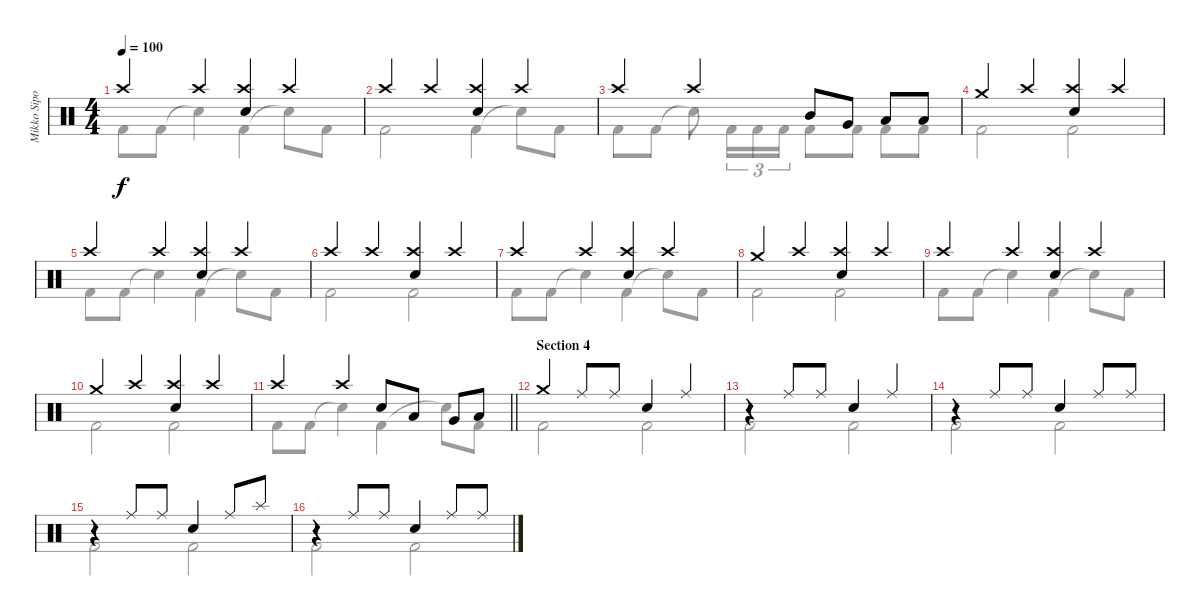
\track ("Mikko Sipola (drums)" "Mikko Sipo") {instrument percussion}
\staff {score}
\articulation defaults
\voice
\ts (4 4)
\tempo 100
\clef neutral
\ks aminor "Crash high (hit)".4{dy f} "Crash high (hit)".4
("Crash high (hit)" "Snare (hit) 2").4 "Crash high (hit)".4 |
"Crash high (hit)".4 "Crash high (hit)".4 ("Crash high (hit)" "Snare (hit) 2").4 "Crash high (hit)".4 |
"Crash high (hit)".4 "Crash high (hit)".4 "Mid Tom (hit)".8 "Very Low Tom (hit)".8 "Low Tom (hit)".8 "Low Floor Tom (hit)".8 |
"Crash medium (hit)".4 "Crash high (hit)".4 ("Crash high (hit)" "Snare (hit) 2").4 "Crash high (hit)".4 |
"Crash high (hit)".4 "Crash high (hit)".4 ("Crash high (hit)" "Snare (hit) 2").4 "Crash high (hit)".4 |
"Crash high (hit)".4 "Crash high (hit)".4 ("Crash high (hit)" "Snare (hit) 2").4 "Crash high (hit)".4 |
"Crash high (hit)".4 "Crash high (hit)".4 ("Crash high (hit)" "Snare (hit) 2").4 "Crash high (hit)".4 |
"Crash medium (hit)".4 "Crash high (hit)".4 ("Crash high (hit)" "Snare (hit) 2").4 "Crash high (hit)".4 |
"Crash high (hit)".4 "Crash high (hit)".4 ("Crash high (hit)" "Snare (hit) 2").4 "Crash high (hit)".4 |
"Crash medium (hit)".4 "Crash high (hit)".4 ("Crash high (hit)" "Snare (hit) 2").4 "Crash high (hit)".4 |
\barLineRight lightlight "Crash high (hit)".4 "Crash high (hit)".4 "Snare (hit) 2".8 "Low Tom (hit)".8 "Very Low Tom (hit)".8 "Low Floor Tom (hit)".8
|
\section ("" "Section 4")
"Crash medium (hit)".4 "Ride (middle)".8 "Ride (middle)".8 "Snare (hit) 2".4 "Ride (middle)".4 |
r.4 "Ride (middle)".8 "Ride (middle)".8 "Snare (hit) 2".4 "Ride (middle)".4 |
r.4 "Ride (middle)".8 "Ride (middle)".8 "Snare (hit) 2".4 "Ride (middle)".8 "Ride (middle)".8 |
r.4 "Ride (middle)".8 "Ride (middle)".8 "Snare (hit) 2".4 "Ride (middle)".8 "Splash (hit)".8 |
r.4 "Ride (middle)".8 "Ride (middle)".8 "Snare (hit) 2".4 "Ride (middle)".8 "Ride (middle)".8
\voice
\clef neutral
\ottava regular
\simile none
\ks aminor "Kick (hit) 2".8{dy f} "Kick (hit) 2".8 "Snare (hit)"{t}.4 "Kick (hit) 2".4 "Snare (hit)"{t}.8 "Kick (hit) 2".8
|
"Kick (hit) 2".2 "Kick (hit) 2".4 "Snare (hit)"{t}.8 "Kick (hit) 2".8 |
"Kick (hit) 2".8 "Kick (hit) 2".8 "Snare (hit)"{t}.8 "Kick (hit) 2".16{tu (3 2)} "Kick (hit) 2".16{tu (3 2)} "Kick (hit) 2".16{tu (3 2)} "Kick (hit) 2".8 "Kick (hit) 2".8 "Kick (hit) 2".8 "Kick (hit) 2".8 |
"Kick (hit) 2".2 "Kick (hit) 2".2 |
"Kick (hit) 2".8 "Kick (hit) 2".8 "Snare (hit)"{t}.4 "Kick (hit) 2".4 "Snare (hit)"{t}.8 "Kick (hit) 2".8 |
"Kick (hit) 2".2 "Kick (hit) 2".2 |
"Kick (hit) 2".8 "Kick (hit) 2".8 "Snare (hit)"{t}.4 "Kick (hit) 2".4 "Snare (hit)"{t}.8 "Kick (hit) 2".8 |
"Kick (hit) 2".2 "Kick (hit) 2".2 |
"Kick (hit) 2".8 "Kick (hit) 2".8 "Snare (hit)"{t}.4 "Kick (hit) 2".4 "Snare (hit)"{t}.8 "Kick (hit) 2".8 |
"Kick (hit) 2".2 "Kick (hit) 2".2 |
\barLineRight lightlight "Kick (hit) 2".8 "Kick (hit) 2".8 "Snare (hit)"{t}.4 "Kick (hit) 2".4 "Snare (hit)"{t}.8 "Kick (hit) 2".8
|
"Kick (hit) 2".2 "Kick (hit) 2".2 |
"Kick (hit) 2".2 "Kick (hit) 2".2 |
"Kick (hit) 2".2 "Kick (hit) 2".2 |
"Kick (hit) 2".2 "Kick (hit) 2".2 |
"Kick (hit) 2".2 "Kick (hit) 2".2
